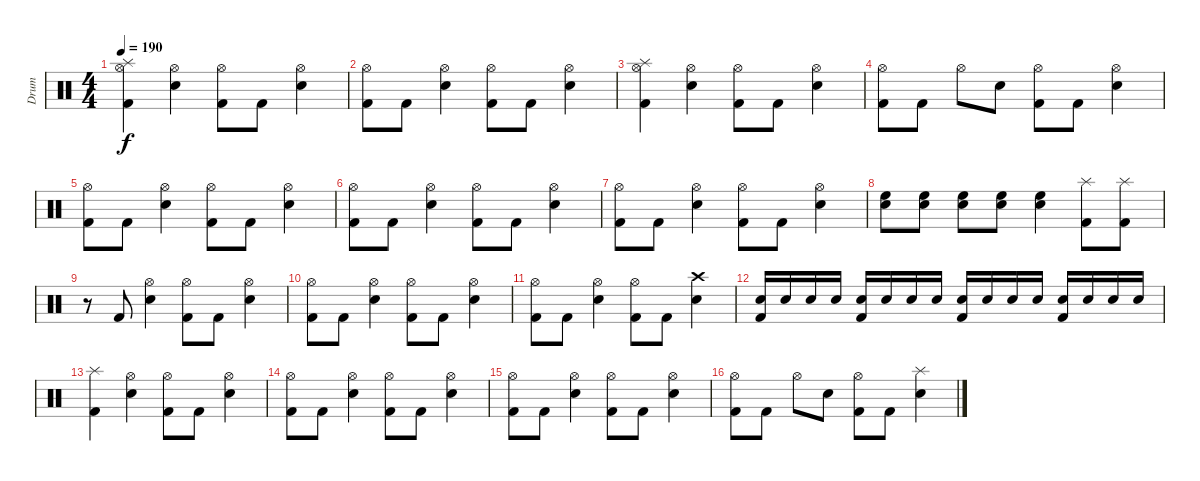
\track ("Drum" "Drum") {instrument percussion}
\staff {score}
\articulation defaults
\ts (4 4)
\tempo 190
\clef neutral
\ks c
("Splash (hit)" "Hi-Hat (open)" "Kick (hit) 2").4{dy f} ("Hi-Hat (open)" "Electric Snare (hit)").4 ("Hi-Hat (open)" "Kick (hit) 2").8 "Kick (hit) 2".8 ("Hi-Hat (open)" "Electric Snare (hit)").4 |
("Hi-Hat (open)" "Kick (hit) 2").8 "Kick (hit) 2".8 ("Hi-Hat (open)" "Electric Snare (hit)").4 ("Hi-Hat (open)" "Kick (hit) 2").8 "Kick (hit) 2".8 ("Hi-Hat (open)" "Electric Snare (hit)").4 |
("Splash (hit)" "Hi-Hat (open)" "Kick (hit) 2").4 ("Hi-Hat (open)" "Electric Snare (hit)").4 ("Hi-Hat (open)" "Kick (hit) 2").8 "Kick (hit) 2".8 ("Hi-Hat (open)" "Electric Snare (hit)").4 |
("Hi-Hat (open)" "Kick (hit) 2").8 "Kick (hit) 2".8 "Hi-Hat (open)".8 "Electric Snare (hit)".8 ("Hi-Hat (open)" "Kick (hit) 2").8 "Kick (hit) 2".8 ("Hi-Hat (open)" "Electric Snare (hit)").4 |
("Hi-Hat (open)" "Kick (hit) 2").8 "Kick (hit) 2".8 ("Hi-Hat (open)" "Electric Snare (hit)").4 ("Hi-Hat (open)" "Kick (hit) 2").8 "Kick (hit) 2".8 ("Hi-Hat (open)" "Electric Snare (hit)").4 |
("Hi-Hat (open)" "Kick (hit) 2").8 "Kick (hit) 2".8 ("Hi-Hat (open)" "Electric Snare (hit)").4 ("Hi-Hat (open)" "Kick (hit) 2").8 "Kick (hit) 2".8 ("Hi-Hat (open)" "Electric Snare (hit)").4 |
("Hi-Hat (open)" "Kick (hit) 2").8 "Kick (hit) 2".8 ("Hi-Hat (open)" "Electric Snare (hit)").4 ("Hi-Hat (open)" "Kick (hit) 2").8 "Kick (hit) 2".8 ("Hi-Hat (open)" "Electric Snare (hit)").4 |
("High Floor Tom (hit)" "Electric Snare (hit)").8 ("High Floor Tom (hit)" "Electric Snare (hit)").8 ("High Floor Tom (hit)" "Electric Snare (hit)").8 ("High Floor Tom (hit)" "Electric Snare (hit)").8 ("High Floor Tom (hit)" "Electric Snare (hit)").4 ("Splash (hit)" "Kick (hit) 2").8 ("Splash (hit)" "Kick (hit) 2").8 |
r.8 "Kick (hit) 2".8 ("Hi-Hat (open)" "Electric Snare (hit)").4 ("Hi-Hat (open)" "Kick (hit) 2").8 "Kick (hit) 2".8 ("Hi-Hat (open)" "Electric Snare (hit)").4 |
("Hi-Hat (open)" "Kick (hit) 2").8 "Kick (hit) 2".8 ("Hi-Hat (open)" "Electric Snare (hit)").4 ("Hi-Hat (open)" "Kick (hit) 2").8 "Kick (hit) 2".8 ("Hi-Hat (open)" "Electric Snare (hit)").4 |
("Hi-Hat (open)" "Kick (hit) 2").8 "Kick (hit) 2".8 ("Hi-Hat (open)" "Electric Snare (hit)").4 ("Hi-Hat (open)" "Kick (hit) 2").8 "Kick (hit) 2".8 ("Crash high (hit)" "Electric Snare (hit)").4 |
("Electric Snare (hit)" "Kick (hit) 2").16 "Electric Snare (hit)".16 "Electric Snare (hit)".16 "Electric Snare (hit)".16 ("Electric Snare (hit)" "Kick (hit) 2").16 "Electric Snare (hit)".16 "Electric Snare (hit)".16 "Electric Snare (hit)".16 ("Electric Snare (hit)" "Kick (hit) 2").16 "Electric Snare (hit)".16 "Electric Snare (hit)".16 "Electric Snare (hit)".16 ("Electric Snare (hit)" "Kick (hit) 2").16 "Electric Snare (hit)".16 "Electric Snare (hit)".16 "Electric Snare (hit)".16 |
("Splash (hit)" "Kick (hit) 2").4 ("Hi-Hat (open)" "Electric Snare (hit)").4 ("Hi-Hat (open)" "Kick (hit) 2").8 "Kick (hit) 2".8 ("Hi-Hat (open)" "Electric Snare (hit)").4 |
("Hi-Hat (open)" "Kick (hit) 2").8 "Kick (hit) 2".8 ("Hi-Hat (open)" "Electric Snare (hit)").4 ("Hi-Hat (open)" "Kick (hit) 2").8 "Kick (hit) 2".8 ("Hi-Hat (open)" "Electric Snare (hit)").4 |
("Hi-Hat (open)" "Kick (hit) 2").8 "Kick (hit) 2".8 ("Hi-Hat (open)" "Electric Snare (hit)").4 ("Hi-Hat (open)" "Kick (hit) 2").8 "Kick (hit) 2".8 ("Hi-Hat (open)" "Electric Snare (hit)").4 |
("Hi-Hat (open)" "Kick (hit) 2").8 "Kick (hit) 2".8 "Hi-Hat (open)".8 "Electric Snare (hit)".8 ("Hi-Hat (open)" "Kick (hit) 2").8 "Kick (hit) 2".8 ("Splash (hit)" "Electric Snare (hit)").4
